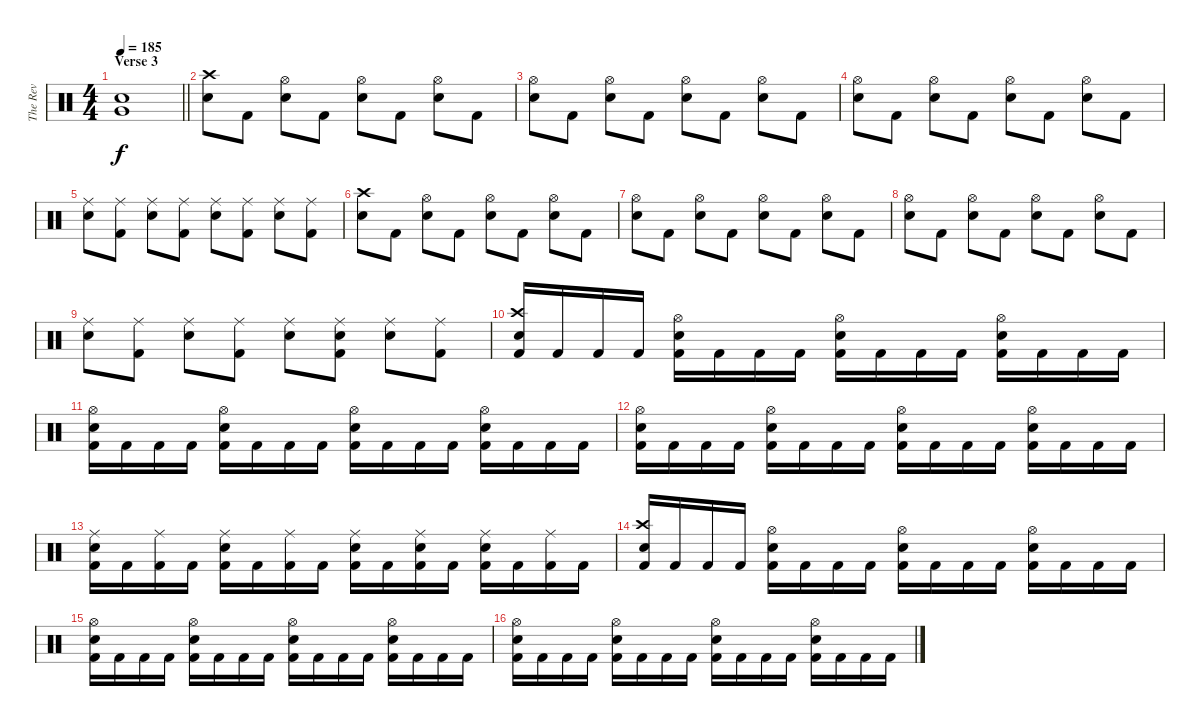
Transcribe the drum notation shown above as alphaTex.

\track ("The Rev" "The Rev") {instrument percussion}
\staff {score}
\articulation defaults
\ts (4 4)
\section ("" "Verse 3")
\tempo 185
\clef neutral
\barLineRight lightlight
\ks c
("Very Low Tom (hit)" "Electric Snare (hit)").1{dy f} |
("Crash high (hit)" "Electric Snare (hit)").8 "Kick (hit) 2".8 ("Hi-Hat (open)" "Electric Snare (hit)").8 "Kick (hit) 2".8 ("Hi-Hat (open)" "Electric Snare (hit)").8 "Kick (hit) 2".8 ("Hi-Hat (open)" "Electric Snare (hit)").8 "Kick (hit) 2".8 |
("Hi-Hat (open)" "Electric Snare (hit)").8 "Kick (hit) 2".8 ("Hi-Hat (open)" "Electric Snare (hit)").8 "Kick (hit) 2".8 ("Hi-Hat (open)" "Electric Snare (hit)").8 "Kick (hit) 2".8 ("Hi-Hat (open)" "Electric Snare (hit)").8 "Kick (hit) 2".8 |
("Hi-Hat (open)" "Electric Snare (hit)").8 "Kick (hit) 2".8 ("Hi-Hat (open)" "Electric Snare (hit)").8 "Kick (hit) 2".8 ("Hi-Hat (open)" "Electric Snare (hit)").8 "Kick (hit) 2".8 ("Hi-Hat (open)" "Electric Snare (hit)").8 "Kick (hit) 2".8 |
("Ride (middle)" "Electric Snare (hit)").8 ("Ride (middle)" "Kick (hit) 2").8 ("Ride (middle)" "Electric Snare (hit)").8 ("Ride (middle)" "Kick (hit) 2").8 ("Ride (middle)" "Electric Snare (hit)").8 ("Ride (middle)" "Kick (hit) 2").8 ("Ride (middle)" "Electric Snare (hit)").8 ("Ride (middle)" "Kick (hit) 2").8 |
("Crash high (hit)" "Electric Snare (hit)").8 "Kick (hit) 2".8 ("Hi-Hat (open)" "Electric Snare (hit)").8 "Kick (hit) 2".8 ("Hi-Hat (open)" "Electric Snare (hit)").8 "Kick (hit) 2".8 ("Hi-Hat (open)" "Electric Snare (hit)").8 "Kick (hit) 2".8 |
("Hi-Hat (open)" "Electric Snare (hit)").8 "Kick (hit) 2".8 ("Hi-Hat (open)" "Electric Snare (hit)").8 "Kick (hit) 2".8 ("Hi-Hat (open)" "Electric Snare (hit)").8 "Kick (hit) 2".8 ("Hi-Hat (open)" "Electric Snare (hit)").8 "Kick (hit) 2".8 |
("Hi-Hat (open)" "Electric Snare (hit)").8 "Kick (hit) 2".8 ("Hi-Hat (open)" "Electric Snare (hit)").8 "Kick (hit) 2".8 ("Hi-Hat (open)" "Electric Snare (hit)").8 "Kick (hit) 2".8 ("Hi-Hat (open)" "Electric Snare (hit)").8 "Kick (hit) 2".8 |
("Ride (middle)" "Electric Snare (hit)").8 ("Ride (middle)" "Kick (hit) 2").8 ("Ride (middle)" "Electric Snare (hit)").8 ("Ride (middle)" "Kick (hit) 2").8 ("Ride (middle)" "Electric Snare (hit)").8 ("Ride (middle)" "Electric Snare (hit)" "Kick (hit) 2").8 ("Ride (middle)" "Electric Snare (hit)").8 ("Ride (middle)" "Kick (hit) 2").8 |
("Crash high (hit)" "Electric Snare (hit)" "Kick (hit) 2").16 "Kick (hit) 2".16 "Kick (hit) 2".16 "Kick (hit) 2".16 ("Hi-Hat (open)" "Electric Snare (hit)" "Kick (hit) 2").16 "Kick (hit) 2".16 "Kick (hit) 2".16 "Kick (hit) 2".16 ("Hi-Hat (open)" "Electric Snare (hit)" "Kick (hit) 2").16 "Kick (hit) 2".16 "Kick (hit) 2".16 "Kick (hit) 2".16 ("Hi-Hat (open)" "Electric Snare (hit)" "Kick (hit) 2").16 "Kick (hit) 2".16 "Kick (hit) 2".16 "Kick (hit) 2".16 |
("Hi-Hat (open)" "Electric Snare (hit)" "Kick (hit) 2").16 "Kick (hit) 2".16 "Kick (hit) 2".16 "Kick (hit) 2".16 ("Hi-Hat (open)" "Electric Snare (hit)" "Kick (hit) 2").16 "Kick (hit) 2".16 "Kick (hit) 2".16 "Kick (hit) 2".16 ("Hi-Hat (open)" "Electric Snare (hit)" "Kick (hit) 2").16 "Kick (hit) 2".16 "Kick (hit) 2".16 "Kick (hit) 2".16 ("Hi-Hat (open)" "Electric Snare (hit)" "Kick (hit) 2").16 "Kick (hit) 2".16 "Kick (hit) 2".16 "Kick (hit) 2".16 |
("Hi-Hat (open)" "Electric Snare (hit)" "Kick (hit) 2").16 "Kick (hit) 2".16 "Kick (hit) 2".16 "Kick (hit) 2".16 ("Hi-Hat (open)" "Electric Snare (hit)" "Kick (hit) 2").16 "Kick (hit) 2".16 "Kick (hit) 2".16 "Kick (hit) 2".16 ("Hi-Hat (open)" "Electric Snare (hit)" "Kick (hit) 2").16 "Kick (hit) 2".16 "Kick (hit) 2".16 "Kick (hit) 2".16 ("Hi-Hat (open)" "Electric Snare (hit)" "Kick (hit) 2").16 "Kick (hit) 2".16 "Kick (hit) 2".16 "Kick (hit) 2".16 |
("Ride (middle)" "Electric Snare (hit)" "Kick (hit) 2").16 "Kick (hit) 2".16 ("Ride (middle)" "Kick (hit) 2").16 "Kick (hit) 2".16 ("Ride (middle)" "Electric Snare (hit)" "Kick (hit) 2").16 "Kick (hit) 2".16 ("Ride (middle)" "Kick (hit) 2").16 "Kick (hit) 2".16 ("Ride (middle)" "Electric Snare (hit)" "Kick (hit) 2").16 "Kick (hit) 2".16 ("Ride (middle)" "Electric Snare (hit)" "Kick (hit) 2").16 "Kick (hit) 2".16 ("Ride (middle)" "Electric Snare (hit)" "Kick (hit) 2").16 "Kick (hit) 2".16 ("Ride (middle)" "Kick (hit) 2").16 "Kick (hit) 2".16 |
("Crash high (hit)" "Electric Snare (hit)" "Kick (hit) 2").16 "Kick (hit) 2".16 "Kick (hit) 2".16 "Kick (hit) 2".16 ("Hi-Hat (open)" "Electric Snare (hit)" "Kick (hit) 2").16 "Kick (hit) 2".16 "Kick (hit) 2".16 "Kick (hit) 2".16 ("Hi-Hat (open)" "Electric Snare (hit)" "Kick (hit) 2").16 "Kick (hit) 2".16 "Kick (hit) 2".16 "Kick (hit) 2".16 ("Hi-Hat (open)" "Electric Snare (hit)" "Kick (hit) 2").16 "Kick (hit) 2".16 "Kick (hit) 2".16 "Kick (hit) 2".16 |
("Hi-Hat (open)" "Electric Snare (hit)" "Kick (hit) 2").16 "Kick (hit) 2".16 "Kick (hit) 2".16 "Kick (hit) 2".16 ("Hi-Hat (open)" "Electric Snare (hit)" "Kick (hit) 2").16 "Kick (hit) 2".16 "Kick (hit) 2".16 "Kick (hit) 2".16 ("Hi-Hat (open)" "Electric Snare (hit)" "Kick (hit) 2").16 "Kick (hit) 2".16 "Kick (hit) 2".16 "Kick (hit) 2".16 ("Hi-Hat (open)" "Electric Snare (hit)" "Kick (hit) 2").16 "Kick (hit) 2".16 "Kick (hit) 2".16 "Kick (hit) 2".16 |
("Hi-Hat (open)" "Electric Snare (hit)" "Kick (hit) 2").16 "Kick (hit) 2".16 "Kick (hit) 2".16 "Kick (hit) 2".16 ("Hi-Hat (open)" "Electric Snare (hit)" "Kick (hit) 2").16 "Kick (hit) 2".16 "Kick (hit) 2".16 "Kick (hit) 2".16 ("Hi-Hat (open)" "Electric Snare (hit)" "Kick (hit) 2").16 "Kick (hit) 2".16 "Kick (hit) 2".16 "Kick (hit) 2".16 ("Hi-Hat (open)" "Electric Snare (hit)" "Kick (hit) 2").16 "Kick (hit) 2".16 "Kick (hit) 2".16 "Kick (hit) 2".16
